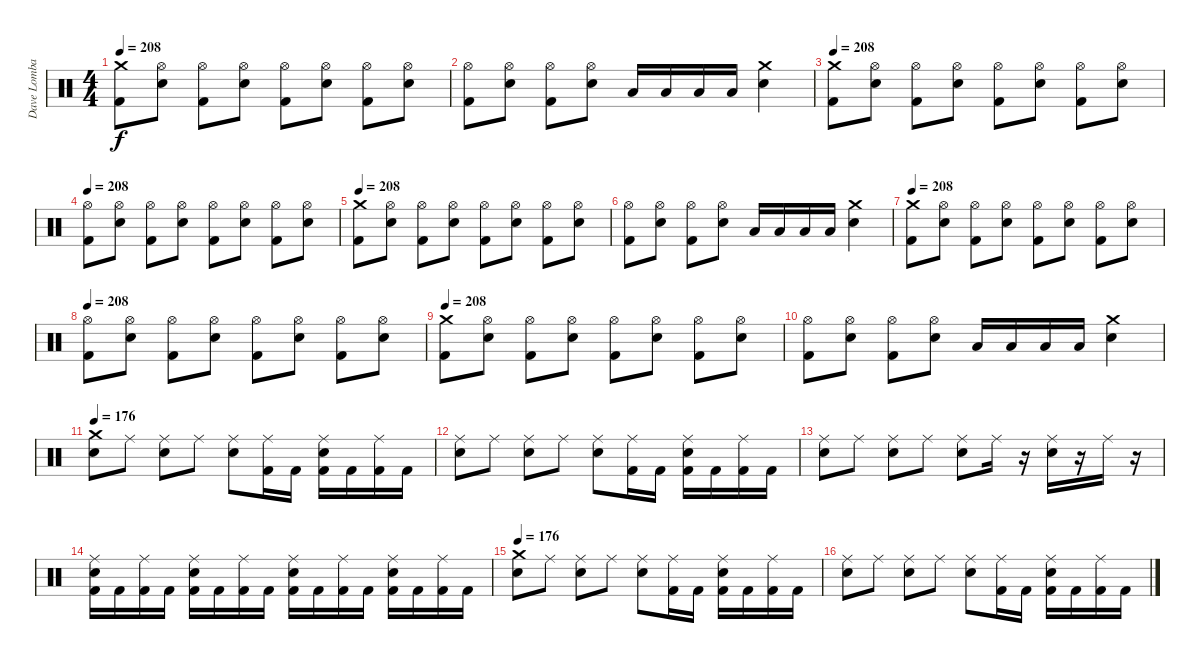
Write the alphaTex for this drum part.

\track ("Dave Lombardo" "Dave Lomba") {instrument percussion}
\staff {score}
\articulation defaults
\ts (4 4)
\tempo 208
\clef neutral
\ks c
("Crash medium (hit)" "Kick (hit) 2").8{dy f} ("Electric Snare (hit)" "Hi-Hat (open)").8 ("Kick (hit) 2" "Hi-Hat (open)").8 ("Electric Snare (hit)" "Hi-Hat (open)").8 ("Kick (hit) 2" "Hi-Hat (open)").8 ("Electric Snare (hit)" "Hi-Hat (open)").8 ("Kick (hit) 2" "Hi-Hat (open)").8 ("Electric Snare (hit)" "Hi-Hat (open)").8 |
("Hi-Hat (open)" "Kick (hit) 2").8 ("Electric Snare (hit)" "Hi-Hat (open)").8 ("Kick (hit) 2" "Hi-Hat (open)").8 ("Electric Snare (hit)" "Hi-Hat (open)").8 "Low Tom (hit)".16 "Low Tom (hit)".16 "Low Tom (hit)".16 "Low Tom (hit)".16 ("Crash medium (hit)" "Electric Snare (hit)").4 |
\tempo 208
("Crash medium (hit)" "Kick (hit) 2").8 ("Electric Snare (hit)" "Hi-Hat (open)").8 ("Kick (hit) 2" "Hi-Hat (open)").8 ("Electric Snare (hit)" "Hi-Hat (open)").8 ("Kick (hit) 2" "Hi-Hat (open)").8 ("Electric Snare (hit)" "Hi-Hat (open)").8 ("Kick (hit) 2" "Hi-Hat (open)").8 ("Electric Snare (hit)" "Hi-Hat (open)").8 |
\tempo 208
("Hi-Hat (open)" "Kick (hit) 2").8 ("Electric Snare (hit)" "Hi-Hat (open)").8 ("Kick (hit) 2" "Hi-Hat (open)").8 ("Electric Snare (hit)" "Hi-Hat (open)").8 ("Kick (hit) 2" "Hi-Hat (open)").8 ("Electric Snare (hit)" "Hi-Hat (open)").8 ("Kick (hit) 2" "Hi-Hat (open)").8 ("Electric Snare (hit)" "Hi-Hat (open)").8 |
\tempo 208
("Crash medium (hit)" "Kick (hit) 2").8 ("Electric Snare (hit)" "Hi-Hat (open)").8 ("Kick (hit) 2" "Hi-Hat (open)").8 ("Electric Snare (hit)" "Hi-Hat (open)").8 ("Kick (hit) 2" "Hi-Hat (open)").8 ("Electric Snare (hit)" "Hi-Hat (open)").8 ("Kick (hit) 2" "Hi-Hat (open)").8 ("Electric Snare (hit)" "Hi-Hat (open)").8 |
("Hi-Hat (open)" "Kick (hit) 2").8 ("Electric Snare (hit)" "Hi-Hat (open)").8 ("Kick (hit) 2" "Hi-Hat (open)").8 ("Electric Snare (hit)" "Hi-Hat (open)").8 "Low Tom (hit)".16 "Low Tom (hit)".16 "Low Tom (hit)".16 "Low Tom (hit)".16 ("Crash medium (hit)" "Electric Snare (hit)").4 |
\tempo 208
("Crash medium (hit)" "Kick (hit) 2").8 ("Electric Snare (hit)" "Hi-Hat (open)").8 ("Kick (hit) 2" "Hi-Hat (open)").8 ("Electric Snare (hit)" "Hi-Hat (open)").8 ("Kick (hit) 2" "Hi-Hat (open)").8 ("Electric Snare (hit)" "Hi-Hat (open)").8 ("Kick (hit) 2" "Hi-Hat (open)").8 ("Electric Snare (hit)" "Hi-Hat (open)").8 |
\tempo 208
("Hi-Hat (open)" "Kick (hit) 2").8 ("Electric Snare (hit)" "Hi-Hat (open)").8 ("Kick (hit) 2" "Hi-Hat (open)").8 ("Electric Snare (hit)" "Hi-Hat (open)").8 ("Kick (hit) 2" "Hi-Hat (open)").8 ("Electric Snare (hit)" "Hi-Hat (open)").8 ("Kick (hit) 2" "Hi-Hat (open)").8 ("Electric Snare (hit)" "Hi-Hat (open)").8 |
\tempo 208
("Crash medium (hit)" "Kick (hit) 2").8 ("Electric Snare (hit)" "Hi-Hat (open)").8 ("Kick (hit) 2" "Hi-Hat (open)").8 ("Electric Snare (hit)" "Hi-Hat (open)").8 ("Kick (hit) 2" "Hi-Hat (open)").8 ("Electric Snare (hit)" "Hi-Hat (open)").8 ("Kick (hit) 2" "Hi-Hat (open)").8 ("Electric Snare (hit)" "Hi-Hat (open)").8 |
("Hi-Hat (open)" "Kick (hit) 2").8 ("Electric Snare (hit)" "Hi-Hat (open)").8 ("Kick (hit) 2" "Hi-Hat (open)").8 ("Electric Snare (hit)" "Hi-Hat (open)").8 "Low Tom (hit)".16 "Low Tom (hit)".16 "Low Tom (hit)".16 "Low Tom (hit)".16 ("Crash medium (hit)" "Electric Snare (hit)").4 |
\tempo 176
("Electric Snare (hit)" "Crash medium (hit)").8 "Ride (middle)".8 ("Electric Snare (hit)" "Ride (middle)").8 "Ride (middle)".8 ("Electric Snare (hit)" "Ride (middle)").8 ("Kick (hit) 2" "Ride (middle)").16 "Kick (hit) 2".16 ("Kick (hit) 2" "Electric Snare (hit)" "Ride (middle)").16 "Kick (hit) 2".16 ("Kick (hit) 2" "Ride (middle)").16 "Kick (hit) 2".16 |
("Electric Snare (hit)" "Ride (middle)").8 "Ride (middle)".8 ("Electric Snare (hit)" "Ride (middle)").8 "Ride (middle)".8 ("Electric Snare (hit)" "Ride (middle)").8 ("Kick (hit) 2" "Ride (middle)").16 "Kick (hit) 2".16 ("Kick (hit) 2" "Electric Snare (hit)" "Ride (middle)").16 "Kick (hit) 2".16 ("Kick (hit) 2" "Ride (middle)").16 "Kick (hit) 2".16 |
("Electric Snare (hit)" "Ride (middle)").8 "Ride (middle)".8 ("Electric Snare (hit)" "Ride (middle)").8 "Ride (middle)".8 ("Electric Snare (hit)" "Ride (middle)").8 "Ride (middle)".16 r.16 ("Electric Snare (hit)" "Ride (middle)").16 r.16 "Ride (middle)".16 r.16 |
("Kick (hit) 2" "Electric Snare (hit)" "Ride (middle)").16 "Kick (hit) 2".16 ("Kick (hit) 2" "Ride (middle)").16 "Kick (hit) 2".16 ("Kick (hit) 2" "Electric Snare (hit)" "Ride (middle)").16 "Kick (hit) 2".16 ("Kick (hit) 2" "Ride (middle)").16 "Kick (hit) 2".16 ("Kick (hit) 2" "Electric Snare (hit)" "Ride (middle)").16 "Kick (hit) 2".16 ("Kick (hit) 2" "Ride (middle)").16 "Kick (hit) 2".16 ("Kick (hit) 2" "Electric Snare (hit)" "Ride (middle)").16 "Kick (hit) 2".16 ("Kick (hit) 2" "Ride (middle)").16 "Kick (hit) 2".16 |
\tempo 176
("Electric Snare (hit)" "Crash medium (hit)").8 "Ride (middle)".8 ("Electric Snare (hit)" "Ride (middle)").8 "Ride (middle)".8 ("Electric Snare (hit)" "Ride (middle)").8 ("Kick (hit) 2" "Ride (middle)").16 "Kick (hit) 2".16 ("Kick (hit) 2" "Electric Snare (hit)" "Ride (middle)").16 "Kick (hit) 2".16 ("Kick (hit) 2" "Ride (middle)").16 "Kick (hit) 2".16 |
("Electric Snare (hit)" "Ride (middle)").8 "Ride (middle)".8 ("Electric Snare (hit)" "Ride (middle)").8 "Ride (middle)".8 ("Electric Snare (hit)" "Ride (middle)").8 ("Kick (hit) 2" "Ride (middle)").16 "Kick (hit) 2".16 ("Kick (hit) 2" "Electric Snare (hit)" "Ride (middle)").16 "Kick (hit) 2".16 ("Kick (hit) 2" "Ride (middle)").16 "Kick (hit) 2".16
